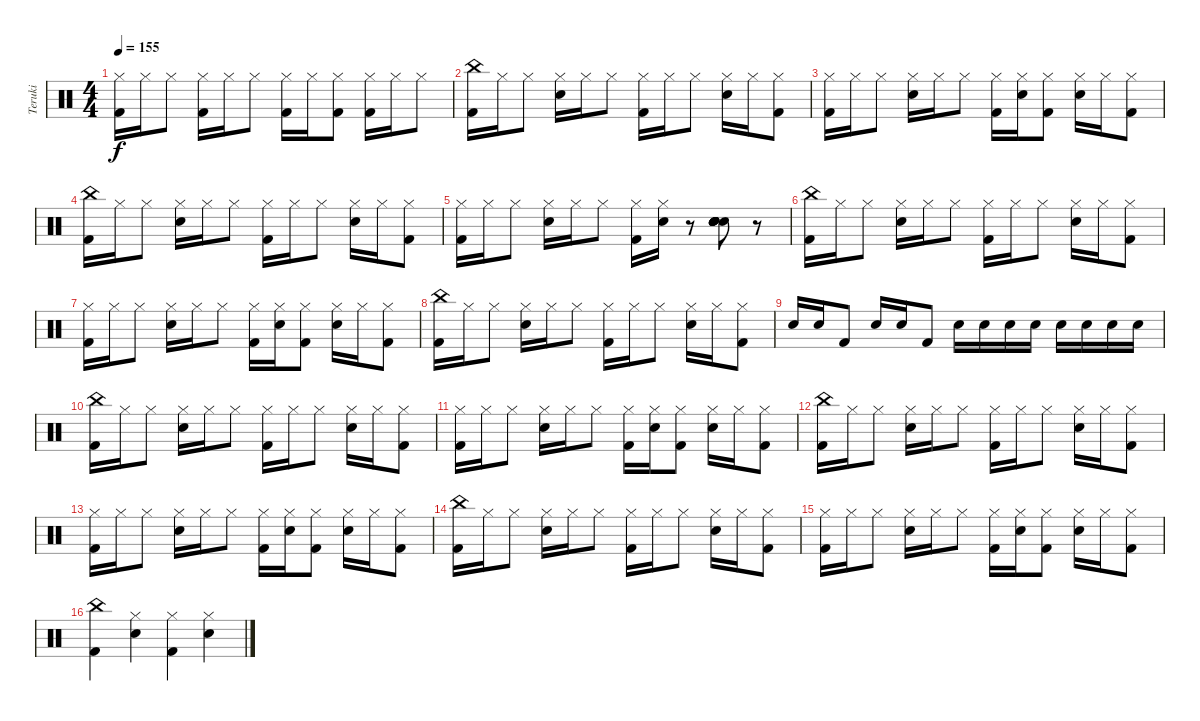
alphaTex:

\track ("Teruki" "Teruki") {instrument percussion}
\staff {score}
\articulation defaults
\ts (4 4)
\tempo 155
\clef neutral
\ks c
("Hi-Hat (closed)" "Kick (hit) 2").16{dy f} "Hi-Hat (closed)".16 "Hi-Hat (closed)".8 ("Hi-Hat (closed)" "Kick (hit) 2").16 "Hi-Hat (closed)".16 "Hi-Hat (closed)".8 ("Hi-Hat (closed)" "Kick (hit) 2").16 "Hi-Hat (closed)".16 ("Hi-Hat (closed)" "Kick (hit) 2").8 ("Hi-Hat (closed)" "Kick (hit) 2").16 "Hi-Hat (closed)".16 "Hi-Hat (closed)".8 |
("China (hit)" "Kick (hit) 2").16 "Hi-Hat (closed)".16 "Hi-Hat (closed)".8 ("Hi-Hat (closed)" "Snare (hit) 2").16 "Hi-Hat (closed)".16 "Hi-Hat (closed)".8 ("Hi-Hat (closed)" "Kick (hit) 2").16 "Hi-Hat (closed)".16 "Hi-Hat (closed)".8 ("Hi-Hat (closed)" "Snare (hit) 2").16 "Hi-Hat (closed)".16 ("Hi-Hat (closed)" "Kick (hit) 2").8 |
("Hi-Hat (closed)" "Kick (hit) 2").16 "Hi-Hat (closed)".16 "Hi-Hat (closed)".8 ("Hi-Hat (closed)" "Snare (hit) 2").16 "Hi-Hat (closed)".16 "Hi-Hat (closed)".8 ("Hi-Hat (closed)" "Kick (hit) 2").16 ("Hi-Hat (closed)" "Snare (hit) 2").16 ("Hi-Hat (closed)" "Kick (hit) 2").8 ("Hi-Hat (closed)" "Snare (hit) 2").16 "Hi-Hat (closed)".16 ("Hi-Hat (closed)" "Kick (hit) 2").8 |
("China (hit)" "Kick (hit) 2").16 "Hi-Hat (closed)".16 "Hi-Hat (closed)".8 ("Hi-Hat (closed)" "Snare (hit) 2").16 "Hi-Hat (closed)".16 "Hi-Hat (closed)".8 ("Hi-Hat (closed)" "Kick (hit) 2").16 "Hi-Hat (closed)".16 "Hi-Hat (closed)".8 ("Hi-Hat (closed)" "Snare (hit) 2").16 "Hi-Hat (closed)".16 ("Hi-Hat (closed)" "Kick (hit) 2").8 |
("Hi-Hat (closed)" "Kick (hit) 2").16 "Hi-Hat (closed)".16 "Hi-Hat (closed)".8 ("Hi-Hat (closed)" "Snare (hit) 2").16 "Hi-Hat (closed)".16 "Hi-Hat (closed)".8 ("Hi-Hat (closed)" "Kick (hit) 2").16 ("Hi-Hat (closed)" "Snare (hit) 2").16 r.8 ("Snare (hit) 2" "Snare (hit) 2" "Snare (hit) 2" "Snare (hit) 2" "Snare (hit) 2" "Snare (hit) 2").8 r.8 |
("China (hit)" "Kick (hit) 2").16 "Hi-Hat (closed)".16 "Hi-Hat (closed)".8 ("Hi-Hat (closed)" "Snare (hit) 2").16 "Hi-Hat (closed)".16 "Hi-Hat (closed)".8 ("Hi-Hat (closed)" "Kick (hit) 2").16 "Hi-Hat (closed)".16 "Hi-Hat (closed)".8 ("Hi-Hat (closed)" "Snare (hit) 2").16 "Hi-Hat (closed)".16 ("Hi-Hat (closed)" "Kick (hit) 2").8 |
("Hi-Hat (closed)" "Kick (hit) 2").16 "Hi-Hat (closed)".16 "Hi-Hat (closed)".8 ("Hi-Hat (closed)" "Snare (hit) 2").16 "Hi-Hat (closed)".16 "Hi-Hat (closed)".8 ("Hi-Hat (closed)" "Kick (hit) 2").16 ("Hi-Hat (closed)" "Snare (hit) 2").16 ("Hi-Hat (closed)" "Kick (hit) 2").8 ("Hi-Hat (closed)" "Snare (hit) 2").16 "Hi-Hat (closed)".16 ("Hi-Hat (closed)" "Kick (hit) 2").8 |
("China (hit)" "Kick (hit) 2").16 "Hi-Hat (closed)".16 "Hi-Hat (closed)".8 ("Hi-Hat (closed)" "Snare (hit) 2").16 "Hi-Hat (closed)".16 "Hi-Hat (closed)".8 ("Hi-Hat (closed)" "Kick (hit) 2").16 "Hi-Hat (closed)".16 "Hi-Hat (closed)".8 ("Hi-Hat (closed)" "Snare (hit) 2").16 "Hi-Hat (closed)".16 ("Hi-Hat (closed)" "Kick (hit) 2").8 |
"Snare (hit) 2".16 "Snare (hit) 2".16 "Kick (hit) 2".8 "Snare (hit) 2".16 "Snare (hit) 2".16 "Kick (hit) 2".8 "Snare (hit) 2".16 "Snare (hit) 2".16 "Snare (hit) 2".16 "Snare (hit) 2".16 "Snare (hit) 2".16 "Snare (hit) 2".16 "Snare (hit) 2".16 "Snare (hit) 2".16 |
("China (hit)" "Kick (hit) 2").16 "Hi-Hat (closed)".16 "Hi-Hat (closed)".8 ("Hi-Hat (closed)" "Snare (hit) 2").16 "Hi-Hat (closed)".16 "Hi-Hat (closed)".8 ("Hi-Hat (closed)" "Kick (hit) 2").16 "Hi-Hat (closed)".16 "Hi-Hat (closed)".8 ("Hi-Hat (closed)" "Snare (hit) 2").16 "Hi-Hat (closed)".16 ("Hi-Hat (closed)" "Kick (hit) 2").8 |
("Hi-Hat (closed)" "Kick (hit) 2").16 "Hi-Hat (closed)".16 "Hi-Hat (closed)".8 ("Hi-Hat (closed)" "Snare (hit) 2").16 "Hi-Hat (closed)".16 "Hi-Hat (closed)".8 ("Hi-Hat (closed)" "Kick (hit) 2").16 ("Hi-Hat (closed)" "Snare (hit) 2").16 ("Hi-Hat (closed)" "Kick (hit) 2").8 ("Hi-Hat (closed)" "Snare (hit) 2").16 "Hi-Hat (closed)".16 ("Hi-Hat (closed)" "Kick (hit) 2").8 |
("China (hit)" "Kick (hit) 2").16 "Hi-Hat (closed)".16 "Hi-Hat (closed)".8 ("Hi-Hat (closed)" "Snare (hit) 2").16 "Hi-Hat (closed)".16 "Hi-Hat (closed)".8 ("Hi-Hat (closed)" "Kick (hit) 2").16 "Hi-Hat (closed)".16 "Hi-Hat (closed)".8 ("Hi-Hat (closed)" "Snare (hit) 2").16 "Hi-Hat (closed)".16 ("Hi-Hat (closed)" "Kick (hit) 2").8 |
("Hi-Hat (closed)" "Kick (hit) 2").16 "Hi-Hat (closed)".16 "Hi-Hat (closed)".8 ("Hi-Hat (closed)" "Snare (hit) 2").16 "Hi-Hat (closed)".16 "Hi-Hat (closed)".8 ("Hi-Hat (closed)" "Kick (hit) 2").16 ("Hi-Hat (closed)" "Snare (hit) 2").16 ("Hi-Hat (closed)" "Kick (hit) 2").8 ("Hi-Hat (closed)" "Snare (hit) 2").16 "Hi-Hat (closed)".16 ("Hi-Hat (closed)" "Kick (hit) 2").8 |
("China (hit)" "Kick (hit) 2").16 "Hi-Hat (closed)".16 "Hi-Hat (closed)".8 ("Hi-Hat (closed)" "Snare (hit) 2").16 "Hi-Hat (closed)".16 "Hi-Hat (closed)".8 ("Hi-Hat (closed)" "Kick (hit) 2").16 "Hi-Hat (closed)".16 "Hi-Hat (closed)".8 ("Hi-Hat (closed)" "Snare (hit) 2").16 "Hi-Hat (closed)".16 ("Hi-Hat (closed)" "Kick (hit) 2").8 |
("Hi-Hat (closed)" "Kick (hit) 2").16 "Hi-Hat (closed)".16 "Hi-Hat (closed)".8 ("Hi-Hat (closed)" "Snare (hit) 2").16 "Hi-Hat (closed)".16 "Hi-Hat (closed)".8 ("Hi-Hat (closed)" "Kick (hit) 2").16 ("Hi-Hat (closed)" "Snare (hit) 2").16 ("Hi-Hat (closed)" "Kick (hit) 2").8 ("Hi-Hat (closed)" "Snare (hit) 2").16 "Hi-Hat (closed)".16 ("Hi-Hat (closed)" "Kick (hit) 2").8 |
("China (hit)" "Kick (hit) 2").4 ("Hi-Hat (closed)" "Snare (hit) 2").4 ("Hi-Hat (closed)" "Kick (hit) 2").4 ("Hi-Hat (closed)" "Snare (hit) 2").4
